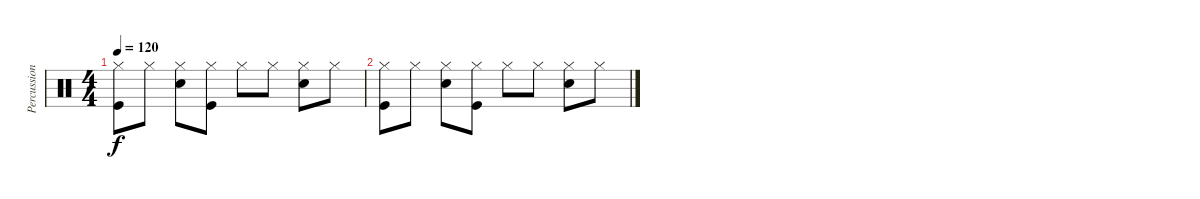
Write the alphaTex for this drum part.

\track ("Percussion" "Percussion") {instrument percussion}
\staff {score}
\articulation defaults
\ts (4 4)
\tempo 120
\clef neutral
\ks c
("Kick (hit)" "Hi-Hat (closed)").8{dy f} "Hi-Hat (closed)".8 ("Electric Snare (hit)" "Hi-Hat (closed)").8 ("Kick (hit)" "Hi-Hat (closed)").8 "Hi-Hat (closed)".8 "Hi-Hat (closed)".8 ("Electric Snare (hit)" "Hi-Hat (closed)").8 "Hi-Hat (closed)".8 |
("Kick (hit)" "Hi-Hat (closed)").8 "Hi-Hat (closed)".8 ("Electric Snare (hit)" "Hi-Hat (closed)").8 ("Kick (hit)" "Hi-Hat (closed)").8 "Hi-Hat (closed)".8 "Hi-Hat (closed)".8 ("Electric Snare (hit)" "Hi-Hat (closed)").8 "Hi-Hat (closed)".8
